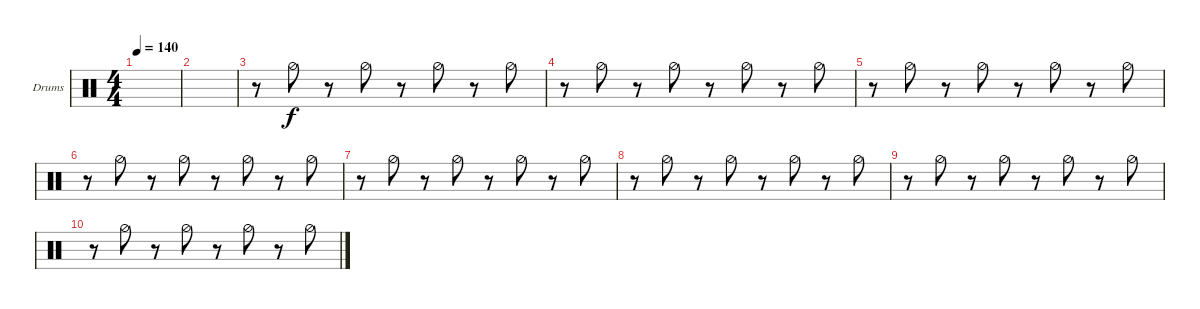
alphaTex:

\defaultSystemsLayout 4
\bracketExtendMode groupsimilarinstruments
\firstSystemTrackNameOrientation horizontal
\otherSystemsTrackNameOrientation horizontal
\track ("Drumkit" "Drums") {instrument percussion}
\staff {score}
\articulation defaults
\ts (4 4)
\tempo 140
\clef neutral
\ks c
|
|
r.8 "Hi-Hat (half)".8 r.8 "Hi-Hat (half)".8 r.8 "Hi-Hat (half)".8 r.8 "Hi-Hat (half)".8 |
r.8 "Hi-Hat (half)".8 r.8 "Hi-Hat (half)".8 r.8 "Hi-Hat (half)".8 r.8 "Hi-Hat (half)".8 |
r.8 "Hi-Hat (half)".8 r.8 "Hi-Hat (half)".8 r.8 "Hi-Hat (half)".8 r.8 "Hi-Hat (half)".8 |
r.8 "Hi-Hat (half)".8 r.8 "Hi-Hat (half)".8 r.8 "Hi-Hat (half)".8 r.8 "Hi-Hat (half)".8 |
r.8 "Hi-Hat (half)".8 r.8 "Hi-Hat (half)".8 r.8 "Hi-Hat (half)".8 r.8 "Hi-Hat (half)".8 |
r.8 "Hi-Hat (half)".8 r.8 "Hi-Hat (half)".8 r.8 "Hi-Hat (half)".8 r.8 "Hi-Hat (half)".8 |
r.8 "Hi-Hat (half)".8 r.8 "Hi-Hat (half)".8 r.8 "Hi-Hat (half)".8 r.8 "Hi-Hat (half)".8 |
r.8 "Hi-Hat (half)".8 r.8 "Hi-Hat (half)".8 r.8 "Hi-Hat (half)".8 r.8 "Hi-Hat (half)".8
